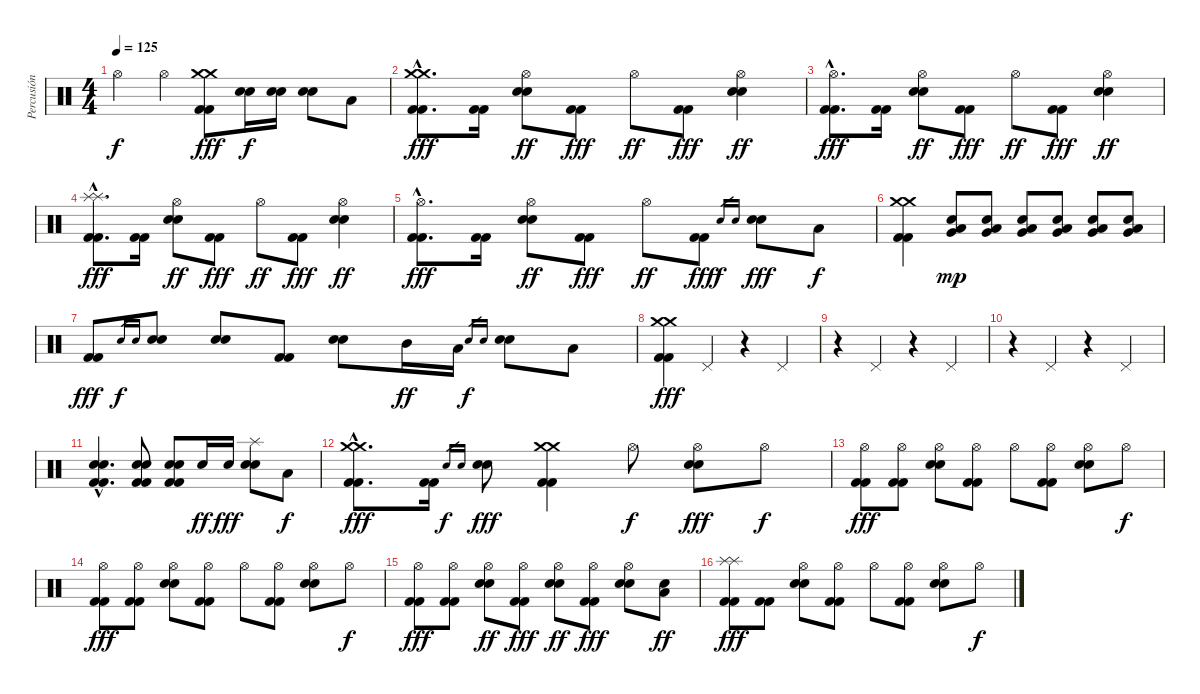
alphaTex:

\track ("Percusión" "Percusión") {instrument percussion}
\staff {score}
\articulation defaults
\ts (4 4)
\tempo 125
\clef neutral
\ks c "Hi-Hat (open)".4{dy f} "Hi-Hat (open)".4
("Crash medium (hit)" "Crash medium (hit)" "Kick (hit) 2" "Kick (hit) 2").8{dy fff} ("Electric Snare (hit)" "Electric Snare (hit)").16{dy f} ("Electric Snare (hit)" "Electric Snare (hit)").16 ("Electric Snare (hit)" "Electric Snare (hit)").8 "Low Tom (hit)".8 |
("Crash medium (hit)"{hac} "Crash medium (hit)"{hac} "Kick (hit) 2"{hac} "Kick (hit) 2"{hac}).8{d dy fff} ("Kick (hit) 2" "Kick (hit) 2").16 ("Hi-Hat (open)" "Electric Snare (hit)" "Electric Snare (hit)").8{dy ff} ("Kick (hit) 2" "Kick (hit) 2").8{dy fff} "Hi-Hat (open)".8{dy ff} ("Kick (hit) 2" "Kick (hit) 2").8{dy fff} ("Hi-Hat (open)" "Electric Snare (hit)" "Electric Snare (hit)").4{dy ff} |
("Hi-Hat (open)"{hac} "Kick (hit) 2"{hac} "Kick (hit) 2"{hac}).8{d dy fff} ("Kick (hit) 2" "Kick (hit) 2").16 ("Hi-Hat (open)" "Electric Snare (hit)" "Electric Snare (hit)").8{dy ff} ("Kick (hit) 2" "Kick (hit) 2").8{dy fff} "Hi-Hat (open)".8{dy ff} ("Kick (hit) 2" "Kick (hit) 2").8{dy fff} ("Hi-Hat (open)" "Electric Snare (hit)" "Electric Snare (hit)").4{dy ff} |
("Splash (hit)"{hac} "Splash (hit)"{hac} "Kick (hit) 2"{hac} "Kick (hit) 2"{hac}).8{d dy fff} ("Kick (hit) 2" "Kick (hit) 2").16 ("Hi-Hat (open)" "Electric Snare (hit)" "Electric Snare (hit)").8{dy ff} ("Kick (hit) 2" "Kick (hit) 2").8{dy fff} "Hi-Hat (open)".8{dy ff} ("Kick (hit) 2" "Kick (hit) 2").8{dy fff} ("Hi-Hat (open)" "Electric Snare (hit)" "Electric Snare (hit)").4{dy ff} |
("Hi-Hat (open)"{hac} "Kick (hit) 2"{hac} "Kick (hit) 2"{hac}).8{d dy fff} ("Kick (hit) 2" "Kick (hit) 2").16 ("Hi-Hat (open)" "Electric Snare (hit)" "Electric Snare (hit)").8{dy ff} ("Kick (hit) 2" "Kick (hit) 2").8{dy fff} "Hi-Hat (open)".8{dy ff} ("Kick (hit) 2" "Kick (hit) 2").8{dy fff} "Electric Snare (hit)".16{gr dy f} "Electric Snare (hit)".16{gr} ("Electric Snare (hit)" "Electric Snare (hit)").8{dy fff} "Low Tom (hit)".8{dy f} |
("Crash medium (hit)" "Crash medium (hit)" "Kick (hit) 2" "Kick (hit) 2").4 ("Electric Snare (hit)" "Low Tom (hit)" "Very Low Tom (hit)").8{dy mp} ("Electric Snare (hit)" "Low Tom (hit)" "Very Low Tom (hit)").8 ("Electric Snare (hit)" "Low Tom (hit)" "Very Low Tom (hit)").8 ("Electric Snare (hit)" "Low Tom (hit)" "Very Low Tom (hit)").8 ("Electric Snare (hit)" "Low Tom (hit)" "Very Low Tom (hit)").8 ("Electric Snare (hit)" "Low Tom (hit)" "Very Low Tom (hit)").8 |
("Kick (hit) 2" "Kick (hit) 2").8{dy fff} "Electric Snare (hit)".16{gr dy f} "Electric Snare (hit)".16{gr} ("Electric Snare (hit)" "Electric Snare (hit)").8 ("Electric Snare (hit)" "Electric Snare (hit)").8 ("Kick (hit) 2" "Kick (hit) 2").8 ("Electric Snare (hit)" "Electric Snare (hit)").8 "Mid Tom (hit)".16{dy ff} "Low Tom (hit)".16 "Electric Snare (hit)".16{gr dy f} "Electric Snare (hit)".16{gr} ("Electric Snare (hit)" "Electric Snare (hit)").8 "Low Tom (hit)".8 |
("Crash medium (hit)" "Crash medium (hit)" "Kick (hit) 2" "Kick (hit) 2").4{dy fff} "Pedal Hi-Hat (hit)".4 r.4 "Pedal Hi-Hat (hit)".4 |
r.4 "Pedal Hi-Hat (hit)".4 r.4 "Pedal Hi-Hat (hit)".4 |
r.4 "Pedal Hi-Hat (hit)".4 r.4 "Pedal Hi-Hat (hit)".4 |
("Electric Snare (hit)"{hac} "Electric Snare (hit)"{hac} "Kick (hit) 2"{hac} "Kick (hit) 2"{hac}).4{d} ("Electric Snare (hit)" "Electric Snare (hit)" "Kick (hit) 2" "Kick (hit) 2").8 ("Electric Snare (hit)" "Electric Snare (hit)" "Kick (hit) 2" "Kick (hit) 2").8 "Electric Snare (hit)".16{dy ff} "Electric Snare (hit)".16{dy fff} ("Splash (hit)" "Electric Snare (hit)" "Electric Snare (hit)").8 "Low Tom (hit)".8{dy f} |
("Crash medium (hit)"{hac} "Crash medium (hit)"{hac} "Kick (hit) 2"{hac} "Kick (hit) 2"{hac}).8{d dy fff} ("Kick (hit) 2" "Kick (hit) 2").16 "Electric Snare (hit)".16{gr dy f} "Electric Snare (hit)".16{gr} ("Electric Snare (hit)" "Electric Snare (hit)").8{dy fff} ("Crash medium (hit)" "Crash medium (hit)" "Kick (hit) 2" "Kick (hit) 2").4 "Hi-Hat (open)".8{dy f} ("Hi-Hat (open)" "Electric Snare (hit)" "Electric Snare (hit)").8{dy fff} "Hi-Hat (open)".8{dy f} |
("Hi-Hat (open)" "Kick (hit) 2" "Kick (hit) 2").8{dy fff} ("Hi-Hat (open)" "Kick (hit) 2" "Kick (hit) 2").8 ("Hi-Hat (open)" "Electric Snare (hit)" "Electric Snare (hit)").8 ("Hi-Hat (open)" "Kick (hit) 2" "Kick (hit) 2").8 "Hi-Hat (open)".8 ("Hi-Hat (open)" "Kick (hit) 2" "Kick (hit) 2").8 ("Hi-Hat (open)" "Electric Snare (hit)" "Electric Snare (hit)").8 "Hi-Hat (open)".8{dy f} |
("Hi-Hat (open)" "Kick (hit) 2" "Kick (hit) 2").8{dy fff} ("Hi-Hat (open)" "Kick (hit) 2" "Kick (hit) 2").8 ("Hi-Hat (open)" "Electric Snare (hit)" "Electric Snare (hit)").8 ("Hi-Hat (open)" "Kick (hit) 2" "Kick (hit) 2").8 "Hi-Hat (open)".8 ("Hi-Hat (open)" "Kick (hit) 2" "Kick (hit) 2").8 ("Hi-Hat (open)" "Electric Snare (hit)" "Electric Snare (hit)").8 "Hi-Hat (open)".8{dy f} |
("Hi-Hat (open)" "Kick (hit) 2" "Kick (hit) 2").8{dy fff} ("Hi-Hat (open)" "Kick (hit) 2" "Kick (hit) 2").8 ("Hi-Hat (open)" "Electric Snare (hit)" "Electric Snare (hit)").8{dy ff} ("Hi-Hat (open)" "Kick (hit) 2" "Kick (hit) 2").8{dy fff} ("Hi-Hat (open)" "Electric Snare (hit)" "Electric Snare (hit)").8{dy ff} ("Hi-Hat (open)" "Kick (hit) 2" "Kick (hit) 2").8{dy fff} ("Hi-Hat (open)" "Electric Snare (hit)" "Electric Snare (hit)").8 ("Low Tom (hit)" "Electric Snare (hit)").8{dy ff} |
("Splash (hit)" "Splash (hit)" "Kick (hit) 2" "Kick (hit) 2").8{dy fff} ("Kick (hit) 2" "Kick (hit) 2").8 ("Hi-Hat (open)" "Electric Snare (hit)" "Electric Snare (hit)").8 ("Hi-Hat (open)" "Kick (hit) 2" "Kick (hit) 2").8 "Hi-Hat (open)".8 ("Hi-Hat (open)" "Kick (hit) 2" "Kick (hit) 2").8 ("Hi-Hat (open)" "Electric Snare (hit)" "Electric Snare (hit)").8 "Hi-Hat (open)".8{dy f}
